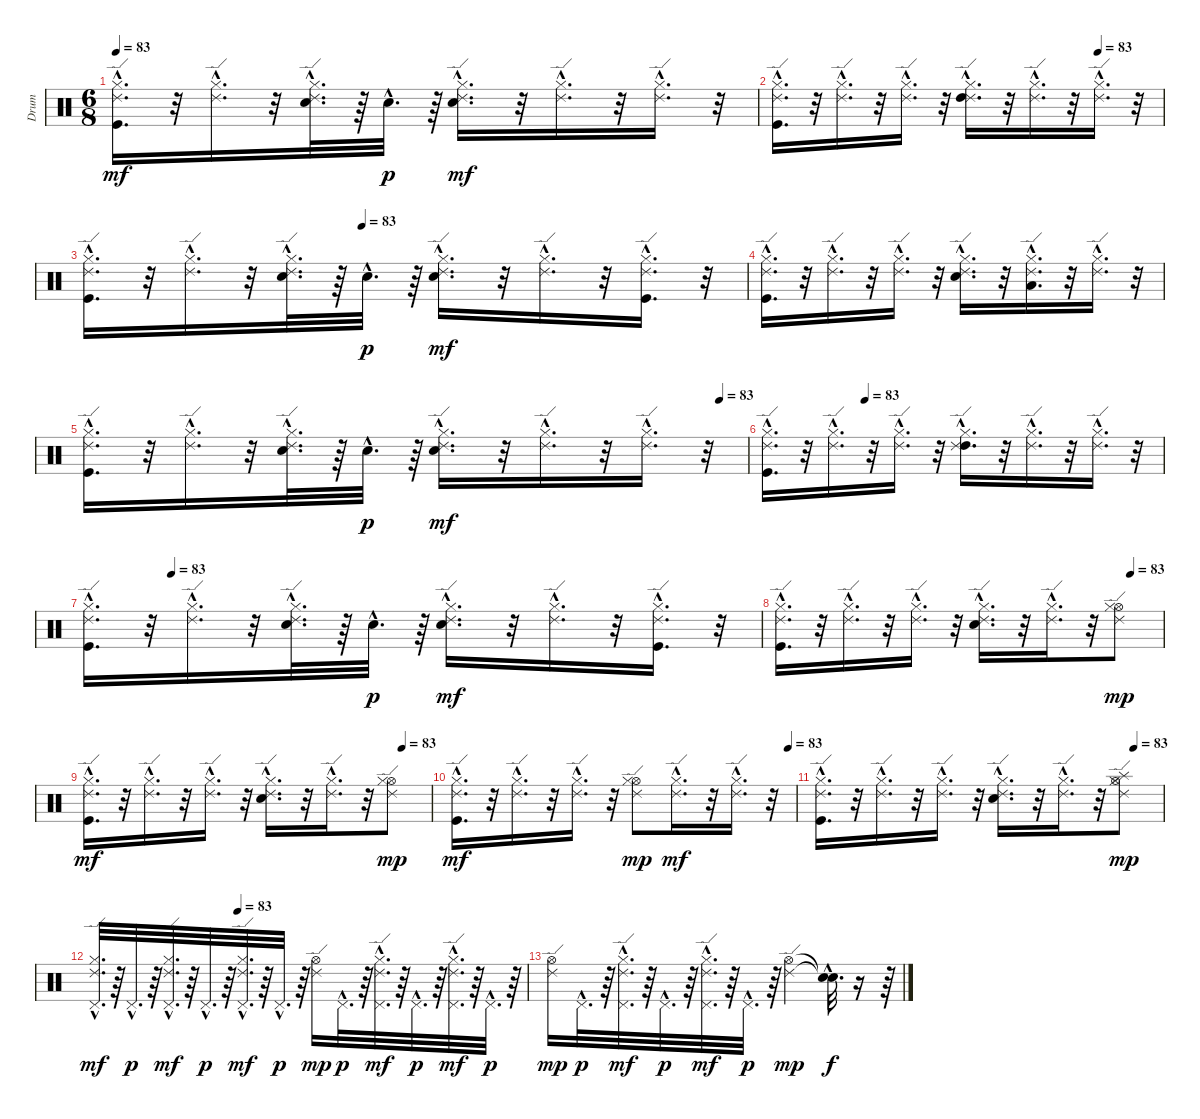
\track ("Drum" "Drum") {instrument percussion}
\staff {score}
\articulation defaults
\ts (6 8)
\tempo 83
\clef neutral
\ks c
("Ride (edge) 2"{hac} "Kick (hit)"{hac} "Hi-Hat (closed)"{hac}).16{d dy mf} r.32 ("Ride (edge) 2"{hac} "Hi-Hat (closed)"{hac}).16{d} r.32 ("Ride (edge) 2"{hac} "Snare (hit) 2"{hac} "Hi-Hat (closed)"{hac}).32{d} r.64 "Snare (hit) 2"{hac}.32{d dy p} r.64 ("Ride (edge) 2"{hac} "Hi-Hat (closed)"{hac} "Snare (hit) 2"{hac}).16{d dy mf} r.32 ("Ride (edge) 2"{hac} "Hi-Hat (closed)"{hac}).16{d} r.32 ("Ride (edge) 2"{hac} "Hi-Hat (closed)"{hac}).16{d} r.32 |
\tempo (83 0.8333333333333334)
("Hi-Hat (closed)"{hac} "Kick (hit)"{hac} "Ride (edge) 2"{hac}).16{d} r.32 ("Hi-Hat (closed)"{hac} "Ride (edge) 2"{hac}).16{d} r.32 ("Hi-Hat (closed)"{hac} "Ride (edge) 2"{hac}).16{d} r.32 ("Ride (edge) 2"{hac} "Hi-Hat (closed)"{hac} "High Tom (hit)"{hac}).16{d} r.32 ("Ride (edge) 2"{hac} "Hi-Hat (closed)"{hac}).16{d} r.32 ("Hi-Hat (closed)"{hac} "Ride (edge) 2"{hac}).16{d} r.32 |
\tempo (83 0.4166666666666667)
("Hi-Hat (closed)"{hac} "Kick (hit)"{hac} "Ride (edge) 2"{hac}).16{d} r.32 ("Hi-Hat (closed)"{hac} "Ride (edge) 2"{hac}).16{d} r.32 ("Hi-Hat (closed)"{hac} "Snare (hit) 2"{hac} "Ride (edge) 2"{hac}).32{d} r.64 "Snare (hit) 2"{hac}.32{d dy p} r.64 ("Snare (hit) 2"{hac} "Hi-Hat (closed)"{hac} "Ride (edge) 2"{hac}).16{d dy mf} r.32 ("Hi-Hat (closed)"{hac} "Ride (edge) 2"{hac}).16{d} r.32 ("Kick (hit)"{hac} "Hi-Hat (closed)"{hac} "Ride (edge) 2"{hac}).16{d} r.32 |
("Ride (edge) 2"{hac} "Hi-Hat (closed)"{hac} "Kick (hit)"{hac}).16{d} r.32 ("Ride (edge) 2"{hac} "Hi-Hat (closed)"{hac}).16{d} r.32 ("Hi-Hat (closed)"{hac} "Ride (edge) 2"{hac}).16{d} r.32 ("Hi-Hat (closed)"{hac} "Ride (edge) 2"{hac} "Snare (hit) 2"{hac}).16{d} r.32 ("Ride (edge) 2"{hac} "Low Tom (hit)"{hac} "Hi-Hat (closed)"{hac}).16{d} r.32 ("Ride (edge) 2"{hac} "Hi-Hat (closed)"{hac}).16{d} r.32 |
\tempo (83 0.9583333333333334)
("Hi-Hat (closed)"{hac} "Kick (hit)"{hac} "Ride (edge) 2"{hac}).16{d} r.32 ("Hi-Hat (closed)"{hac} "Ride (edge) 2"{hac}).16{d} r.32 ("Hi-Hat (closed)"{hac} "Snare (hit) 2"{hac} "Ride (edge) 2"{hac}).32{d} r.64 "Snare (hit) 2"{hac}.32{d dy p} r.64 ("Snare (hit) 2"{hac} "Hi-Hat (closed)"{hac} "Ride (edge) 2"{hac}).16{d dy mf} r.32 ("Hi-Hat (closed)"{hac} "Ride (edge) 2"{hac}).16{d} r.32 ("Hi-Hat (closed)"{hac} "Ride (edge) 2"{hac}).16{d} r.32 |
\tempo (83 0.25)
("Kick (hit)"{hac} "Hi-Hat (closed)"{hac} "Ride (edge) 2"{hac}).16{d} r.32 ("Ride (edge) 2"{hac} "Hi-Hat (closed)"{hac}).16{d} r.32 ("Hi-Hat (closed)"{hac} "Ride (edge) 2"{hac}).16{d} r.32 ("Hi-Hat (closed)"{hac} "High Tom (hit)"{hac} "Ride (edge) 2"{hac}).16{d} r.32 ("Hi-Hat (closed)"{hac} "Ride (edge) 2"{hac}).16{d} r.32 ("Ride (edge) 2"{hac} "Hi-Hat (closed)"{hac}).16{d} r.32 |
\tempo (83 0.125)
("Ride (edge) 2"{hac} "Kick (hit)"{hac} "Hi-Hat (closed)"{hac}).16{d} r.32 ("Ride (edge) 2"{hac} "Hi-Hat (closed)"{hac}).16{d} r.32 ("Ride (edge) 2"{hac} "Snare (hit) 2"{hac} "Hi-Hat (closed)"{hac}).32{d} r.64 "Snare (hit) 2"{hac}.32{d dy p} r.64 ("Ride (edge) 2"{hac} "Hi-Hat (closed)"{hac} "Snare (hit) 2"{hac}).16{d dy mf} r.32 ("Ride (edge) 2"{hac} "Hi-Hat (closed)"{hac}).16{d} r.32 ("Ride (edge) 2"{hac} "Hi-Hat (closed)"{hac} "Kick (hit)"{hac}).16{d} r.32 |
\tempo (83 0.9166666666666666)
("Hi-Hat (closed)"{hac} "Kick (hit)"{hac} "Ride (edge) 2"{hac}).16{d} r.32 ("Hi-Hat (closed)"{hac} "Ride (edge) 2"{hac}).16{d} r.32 ("Ride (edge) 2"{hac} "Hi-Hat (closed)"{hac}).16{d} r.32 ("Hi-Hat (closed)"{hac} "Ride (edge) 2"{hac} "Snare (hit) 2"{hac}).16{d} r.32 ("Hi-Hat (closed)"{hac} "Ride (edge) 2"{hac}).16{d} r.32 ("Hi-Hat (open)" "Hi-Hat (closed)" "Ride (edge) 2").8{dy mp} |
\tempo (83 0.9166666666666666)
("Ride (edge) 2"{hac} "Kick (hit)"{hac} "Hi-Hat (closed)"{hac}).16{d dy mf} r.32 ("Hi-Hat (closed)"{hac} "Ride (edge) 2"{hac}).16{d} r.32 ("Ride (edge) 2"{hac} "Hi-Hat (closed)"{hac}).16{d} r.32 ("Ride (edge) 2"{hac} "Hi-Hat (closed)"{hac} "Snare (hit) 2"{hac}).16{d} r.32 ("Ride (edge) 2"{hac} "Hi-Hat (closed)"{hac}).16{d} r.32 ("Hi-Hat (open)" "Ride (edge) 2" "Hi-Hat (closed)").8{dy mp} |
\tempo (83 0.9791666666666666)
("Ride (edge) 2"{hac} "Hi-Hat (closed)"{hac} "Kick (hit)"{hac}).16{d dy mf} r.32 ("Ride (edge) 2"{hac} "Hi-Hat (closed)"{hac}).16{d} r.32 ("Hi-Hat (closed)"{hac} "Ride (edge) 2"{hac}).16{d} r.32 ("Hi-Hat (open)" "Ride (edge) 2" "Hi-Hat (closed)").8{dy mp} ("Ride (edge) 2"{hac} "Hi-Hat (closed)"{hac}).16{d dy mf} r.32 ("Hi-Hat (closed)"{hac} "Ride (edge) 2"{hac}).16{d} r.32 |
\tempo (83 0.9166666666666666)
("Hi-Hat (closed)"{hac} "Kick (hit)"{hac} "Ride (edge) 2"{hac}).16{d} r.32 ("Ride (edge) 2"{hac} "Hi-Hat (closed)"{hac}).16{d} r.32 ("Hi-Hat (closed)"{hac} "Ride (edge) 2"{hac}).16{d} r.32 ("Snare (hit) 2"{hac} "Hi-Hat (closed)"{hac} "Ride (edge) 2"{hac}).16{d} r.32 ("Hi-Hat (closed)"{hac} "Ride (edge) 2"{hac}).16{d} r.32 ("Splash (hit)" "Hi-Hat (closed)" "Ride (edge) 2" "Hi-Hat (open)").8{dy mp} |
\tempo (83 0.3333333333333333)
("Ride (edge) 2"{hac} "Pedal Hi-Hat (hit)"{hac} "Hi-Hat (closed)"{hac}).32{d dy mf} r.64 "Pedal Hi-Hat (hit)"{hac}.32{d dy p} r.64 ("Ride (edge) 2"{hac} "Pedal Hi-Hat (hit)"{hac} "Hi-Hat (closed)"{hac}).32{d dy mf} r.64 "Pedal Hi-Hat (hit)"{hac}.32{d dy p} r.64 ("Ride (edge) 2"{hac} "Pedal Hi-Hat (hit)"{hac} "Hi-Hat (closed)"{hac}).32{d dy mf} r.64 "Pedal Hi-Hat (hit)"{hac}.32{d dy p} r.64 ("Ride (edge) 2" "Hi-Hat (open)").16{dy mp} "Pedal Hi-Hat (hit)"{hac}.32{d dy p} r.64 ("Pedal Hi-Hat (hit)"{hac} "Hi-Hat (closed)"{hac} "Ride (edge) 2"{hac}).32{d dy mf} r.64 "Pedal Hi-Hat (hit)"{hac}.32{d dy p} r.64 ("Pedal Hi-Hat (hit)"{hac} "Hi-Hat (closed)"{hac} "Ride (edge) 2"{hac}).32{d dy mf} r.64 "Pedal Hi-Hat (hit)"{hac}.32{d dy p} r.64 |
("Ride (edge) 2" "Hi-Hat (open)").16{dy mp} "Pedal Hi-Hat (hit)"{hac}.32{d dy p} r.64 ("Pedal Hi-Hat (hit)"{hac} "Ride (edge) 2"{hac} "Hi-Hat (closed)"{hac}).32{d dy mf} r.64 "Pedal Hi-Hat (hit)"{hac}.32{d dy p} r.64 ("Pedal Hi-Hat (hit)"{hac} "Ride (edge) 2"{hac} "Hi-Hat (closed)"{hac}).32{d dy mf} r.64 "Pedal Hi-Hat (hit)"{hac}.32{d dy p} r.64 ("Hi-Hat (open)" "Ride (edge) 2").4{dy mp} ("Snare (hit)"{hac t} "Snare (hit)"{hac t}).32{d dy f} r.16 r.64
